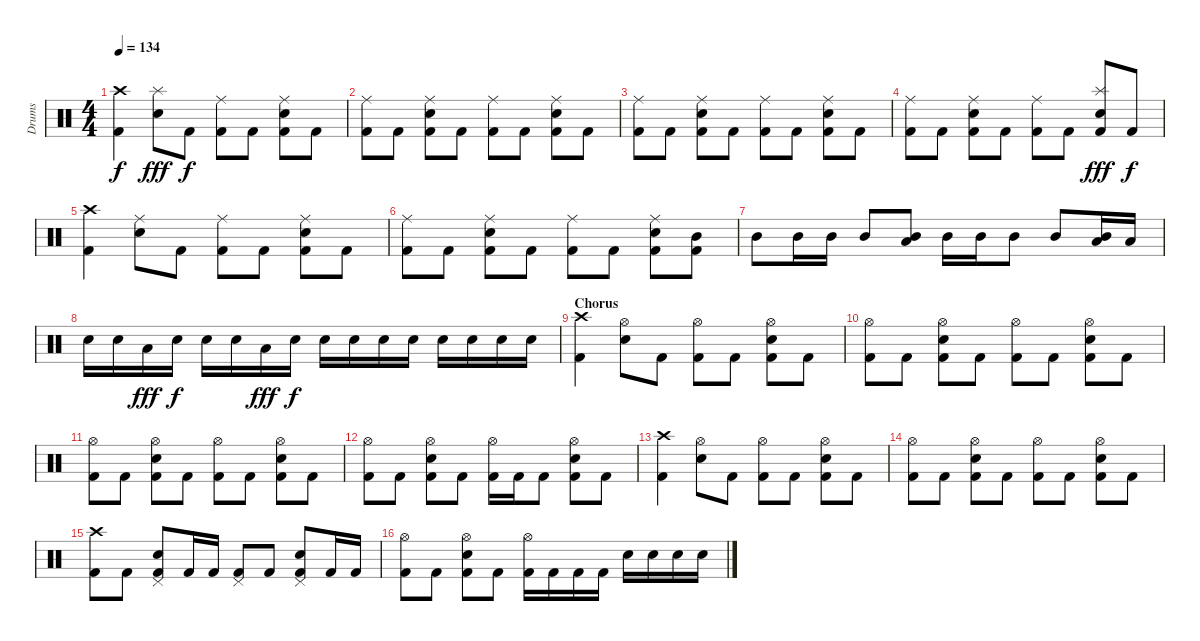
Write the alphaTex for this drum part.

\track ("Drums" "Drums") {instrument percussion}
\staff {score}
\articulation defaults
\ts (4 4)
\section ("" "")
\tempo 134
\clef neutral
\ks c
("Crash high (hit)" "Kick (hit) 2").4{dy f} ("Splash (hit)" "Snare (hit) 2").8{dy fff} "Kick (hit) 2".8{dy f} ("Ride (middle)" "Kick (hit) 2").8 "Kick (hit) 2".8 ("Ride (middle)" "Snare (hit) 2" "Kick (hit) 2").8 "Kick (hit) 2".8 |
("Ride (middle)" "Kick (hit) 2").8 "Kick (hit) 2".8 ("Ride (middle)" "Snare (hit) 2" "Kick (hit) 2").8 "Kick (hit) 2".8 ("Ride (middle)" "Kick (hit) 2").8 "Kick (hit) 2".8 ("Ride (middle)" "Snare (hit) 2" "Kick (hit) 2").8 "Kick (hit) 2".8 |
("Ride (middle)" "Kick (hit) 2").8 "Kick (hit) 2".8 ("Ride (middle)" "Snare (hit) 2" "Kick (hit) 2").8 "Kick (hit) 2".8 ("Ride (middle)" "Kick (hit) 2").8 "Kick (hit) 2".8 ("Ride (middle)" "Snare (hit) 2" "Kick (hit) 2").8 "Kick (hit) 2".8 |
("Ride (middle)" "Kick (hit) 2").8 "Kick (hit) 2".8 ("Ride (middle)" "Snare (hit) 2" "Kick (hit) 2").8 "Kick (hit) 2".8 ("Ride (middle)" "Kick (hit) 2").8 "Kick (hit) 2".8 ("Splash (hit)" "Snare (hit) 2" "Kick (hit) 2").8{dy fff} "Kick (hit) 2".8{dy f} |
("Crash high (hit)" "Kick (hit) 2").4 ("Ride (middle)" "Snare (hit) 2").8 "Kick (hit) 2".8 ("Ride (middle)" "Kick (hit) 2").8 "Kick (hit) 2".8 ("Ride (middle)" "Snare (hit) 2" "Kick (hit) 2").8 "Kick (hit) 2".8 |
("Ride (middle)" "Kick (hit) 2").8 "Kick (hit) 2".8 ("Ride (middle)" "Snare (hit) 2" "Kick (hit) 2").8 "Kick (hit) 2".8 ("Ride (middle)" "Kick (hit) 2").8 "Kick (hit) 2".8 ("Ride (middle)" "Snare (hit) 2" "Kick (hit) 2").8 ("Mid Tom (hit)" "Kick (hit) 2").8 |
"Mid Tom (hit)".8 "Mid Tom (hit)".16 "Mid Tom (hit)".16 "Mid Tom (hit)".8 ("Mid Tom (hit)" "Low Tom (hit)").8 "Mid Tom (hit)".16 "Mid Tom (hit)".16 "Mid Tom (hit)".8 "Mid Tom (hit)".8 ("Mid Tom (hit)" "Low Tom (hit)").16 "Low Tom (hit)".16 |
"Snare (hit) 2".16 "Snare (hit) 2".16 "Low Tom (hit)".16{dy fff} "Snare (hit) 2".16{dy f} "Snare (hit) 2".16 "Snare (hit) 2".16 "Low Tom (hit)".16{dy fff} "Snare (hit) 2".16{dy f} "Snare (hit) 2".16 "Snare (hit) 2".16 "Snare (hit) 2".16 "Snare (hit) 2".16 "Snare (hit) 2".16 "Snare (hit) 2".16 "Snare (hit) 2".16 "Snare (hit) 2".16 |
\section ("" "Chorus")
("Crash high (hit)" "Kick (hit) 2").4 ("Hi-Hat (open)" "Snare (hit) 2").8 "Kick (hit) 2".8 ("Hi-Hat (open)" "Kick (hit) 2").8 "Kick (hit) 2".8 ("Hi-Hat (open)" "Snare (hit) 2" "Kick (hit) 2").8 "Kick (hit) 2".8 |
("Hi-Hat (open)" "Kick (hit) 2").8 "Kick (hit) 2".8 ("Hi-Hat (open)" "Snare (hit) 2" "Kick (hit) 2").8 "Kick (hit) 2".8 ("Hi-Hat (open)" "Kick (hit) 2").8 "Kick (hit) 2".8 ("Hi-Hat (open)" "Snare (hit) 2" "Kick (hit) 2").8 "Kick (hit) 2".8 |
("Hi-Hat (open)" "Kick (hit) 2").8 "Kick (hit) 2".8 ("Hi-Hat (open)" "Snare (hit) 2" "Kick (hit) 2").8 "Kick (hit) 2".8 ("Hi-Hat (open)" "Kick (hit) 2").8 "Kick (hit) 2".8 ("Hi-Hat (open)" "Snare (hit) 2" "Kick (hit) 2").8 "Kick (hit) 2".8 |
("Hi-Hat (open)" "Kick (hit) 2").8 "Kick (hit) 2".8 ("Hi-Hat (open)" "Snare (hit) 2" "Kick (hit) 2").8 "Kick (hit) 2".8 ("Hi-Hat (open)" "Kick (hit) 2").16 "Kick (hit) 2".16 "Kick (hit) 2".8 ("Hi-Hat (open)" "Snare (hit) 2" "Kick (hit) 2").8 "Kick (hit) 2".8 |
("Crash high (hit)" "Kick (hit) 2").4 ("Hi-Hat (open)" "Snare (hit) 2").8 "Kick (hit) 2".8 ("Hi-Hat (open)" "Kick (hit) 2").8 "Kick (hit) 2".8 ("Hi-Hat (open)" "Snare (hit) 2" "Kick (hit) 2").8 "Kick (hit) 2".8 |
("Hi-Hat (open)" "Kick (hit) 2").8 "Kick (hit) 2".8 ("Hi-Hat (open)" "Snare (hit) 2" "Kick (hit) 2").8 "Kick (hit) 2".8 ("Hi-Hat (open)" "Kick (hit) 2").8 "Kick (hit) 2".8 ("Hi-Hat (open)" "Snare (hit) 2" "Kick (hit) 2").8 "Kick (hit) 2".8 |
("Crash high (hit)" "Kick (hit) 2").8 "Kick (hit) 2".8 ("Pedal Hi-Hat (hit)" "Snare (hit) 2" "Kick (hit) 2").8 "Kick (hit) 2".16 "Kick (hit) 2".16 ("Pedal Hi-Hat (hit)" "Kick (hit) 2").8 "Kick (hit) 2".8 ("Pedal Hi-Hat (hit)" "Snare (hit) 2" "Kick (hit) 2").8 "Kick (hit) 2".16 "Kick (hit) 2".16 |
("Hi-Hat (open)" "Kick (hit) 2").8 "Kick (hit) 2".8 ("Hi-Hat (open)" "Snare (hit) 2" "Kick (hit) 2").8 "Kick (hit) 2".8 ("Hi-Hat (open)" "Kick (hit) 2").16 "Kick (hit) 2".16 "Kick (hit) 2".16 "Kick (hit) 2".16 "Snare (hit) 2".16 "Snare (hit) 2".16 "Snare (hit) 2".16 "Snare (hit) 2".16
